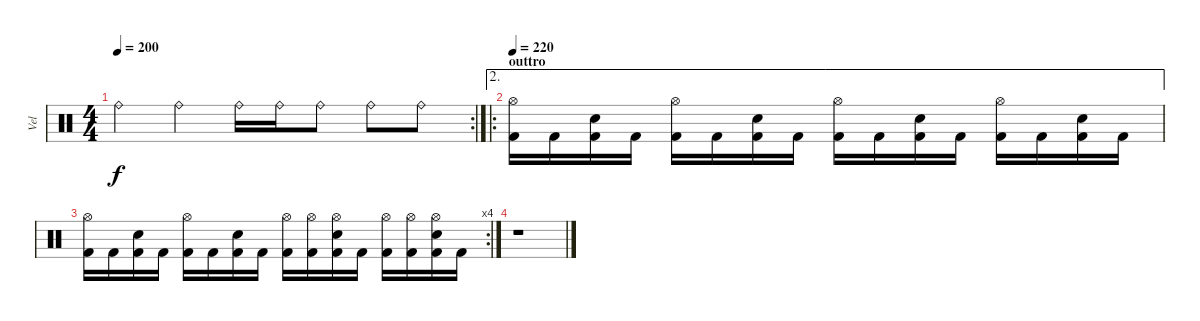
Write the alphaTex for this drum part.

\track ("Vel" "Vel") {instrument percussion}
\staff {score}
\articulation defaults
\rc 2
\ts (4 4)
\tempo 200
\clef neutral
\ks c "Ride (bell)".4{dy f} "Ride (bell)".4 "Ride (bell)".16 "Ride (bell)".16 "Ride (bell)".8 "Ride (bell)".8 "Ride (bell)".8
|
\ae 2
\ro
\section ("" "outtro")
\tempo 220
("Hi-Hat (open)" "Kick (hit) 2").16 "Kick (hit) 2".16 ("Electric Snare (hit)" "Kick (hit) 2").16 "Kick (hit) 2".16 ("Hi-Hat (open)" "Kick (hit) 2").16 "Kick (hit) 2".16 ("Electric Snare (hit)" "Kick (hit) 2").16 "Kick (hit) 2".16 ("Hi-Hat (open)" "Kick (hit) 2").16 "Kick (hit) 2".16 ("Electric Snare (hit)" "Kick (hit) 2").16 "Kick (hit) 2".16 ("Hi-Hat (open)" "Kick (hit) 2").16 "Kick (hit) 2".16 ("Electric Snare (hit)" "Kick (hit) 2").16 "Kick (hit) 2".16 |
\rc 4
("Hi-Hat (open)" "Kick (hit) 2").16 "Kick (hit) 2".16 ("Electric Snare (hit)" "Kick (hit) 2").16 "Kick (hit) 2".16 ("Hi-Hat (open)" "Kick (hit) 2").16 "Kick (hit) 2".16 ("Electric Snare (hit)" "Kick (hit) 2").16 "Kick (hit) 2".16 ("Hi-Hat (open)" "Kick (hit) 2").16 ("Hi-Hat (open)" "Kick (hit) 2").16 ("Hi-Hat (open)" "Electric Snare (hit)" "Kick (hit) 2").16 "Kick (hit) 2".16 ("Hi-Hat (open)" "Kick (hit) 2").16 ("Hi-Hat (open)" "Kick (hit) 2").16 ("Hi-Hat (open)" "Electric Snare (hit)" "Kick (hit) 2").16 "Kick (hit) 2".16 |
r.1
